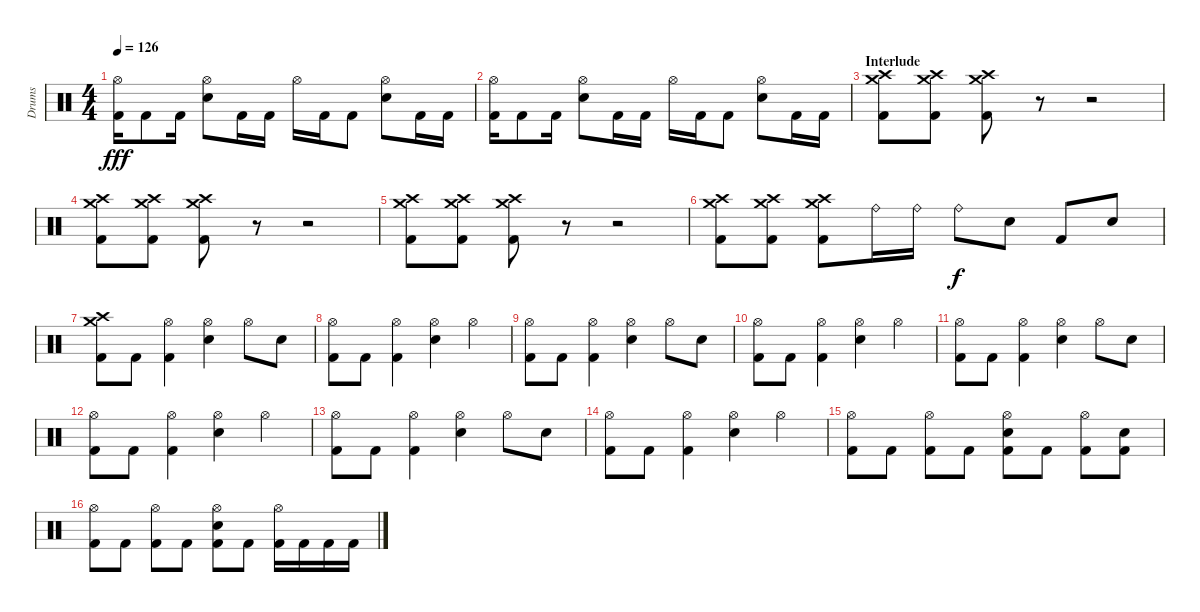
\track ("Drums" "Drums") {instrument percussion}
\staff {score}
\articulation defaults
\ts (4 4)
\tempo 126
\clef neutral
\ks c
("Hi-Hat (open)" "Kick (hit) 2").16{dy fff} "Kick (hit) 2".8 "Kick (hit) 2".16 ("Hi-Hat (open)" "Electric Snare (hit)").8 "Kick (hit) 2".16 "Kick (hit) 2".16 "Hi-Hat (open)".16 "Kick (hit) 2".16 "Kick (hit) 2".8 ("Hi-Hat (open)" "Electric Snare (hit)").8 "Kick (hit) 2".16 "Kick (hit) 2".16 |
("Hi-Hat (open)" "Kick (hit) 2").16 "Kick (hit) 2".8 "Kick (hit) 2".16 ("Hi-Hat (open)" "Electric Snare (hit)").8 "Kick (hit) 2".16 "Kick (hit) 2".16 "Hi-Hat (open)".16 "Kick (hit) 2".16 "Kick (hit) 2".8 ("Hi-Hat (open)" "Electric Snare (hit)").8 "Kick (hit) 2".16 "Kick (hit) 2".16 |
\section ("" "Interlude")
("Crash high (hit)" "Crash medium (hit)" "Kick (hit) 2").8 ("Crash high (hit)" "Crash medium (hit)" "Kick (hit) 2").8 ("Crash high (hit)" "Crash medium (hit)" "Kick (hit) 2").8 r.8 r.2 |
("Crash high (hit)" "Crash medium (hit)" "Kick (hit) 2").8 ("Crash high (hit)" "Crash medium (hit)" "Kick (hit) 2").8 ("Crash high (hit)" "Crash medium (hit)" "Kick (hit) 2").8 r.8 r.2 |
("Crash high (hit)" "Crash medium (hit)" "Kick (hit) 2").8 ("Crash high (hit)" "Crash medium (hit)" "Kick (hit) 2").8 ("Crash high (hit)" "Crash medium (hit)" "Kick (hit) 2").8 r.8 r.2 |
("Crash high (hit)" "Crash medium (hit)" "Kick (hit) 2").8 ("Crash high (hit)" "Crash medium (hit)" "Kick (hit) 2").8 ("Crash high (hit)" "Crash medium (hit)" "Kick (hit) 2").8 "Ride (bell)".16 "Ride (bell)".16 "Ride (bell)".8{dy f} "Electric Snare (hit)".8 "Kick (hit) 2".8 "Electric Snare (hit)".8 |
("Crash high (hit)" "Crash medium (hit)" "Kick (hit) 2").8 "Kick (hit) 2".8 ("Hi-Hat (open)" "Kick (hit) 2").4 ("Hi-Hat (open)" "Electric Snare (hit)").4 "Hi-Hat (open)".8 "Electric Snare (hit)".8 |
("Hi-Hat (open)" "Kick (hit) 2").8 "Kick (hit) 2".8 ("Hi-Hat (open)" "Kick (hit) 2").4 ("Hi-Hat (open)" "Electric Snare (hit)").4 "Hi-Hat (open)".4 |
("Hi-Hat (open)" "Kick (hit) 2").8 "Kick (hit) 2".8 ("Hi-Hat (open)" "Kick (hit) 2").4 ("Hi-Hat (open)" "Electric Snare (hit)").4 "Hi-Hat (open)".8 "Electric Snare (hit)".8 |
("Hi-Hat (open)" "Kick (hit) 2").8 "Kick (hit) 2".8 ("Hi-Hat (open)" "Kick (hit) 2").4 ("Hi-Hat (open)" "Electric Snare (hit)").4 "Hi-Hat (open)".4 |
("Hi-Hat (open)" "Kick (hit) 2").8 "Kick (hit) 2".8 ("Hi-Hat (open)" "Kick (hit) 2").4 ("Hi-Hat (open)" "Electric Snare (hit)").4 "Hi-Hat (open)".8 "Electric Snare (hit)".8 |
("Hi-Hat (open)" "Kick (hit) 2").8 "Kick (hit) 2".8 ("Hi-Hat (open)" "Kick (hit) 2").4 ("Hi-Hat (open)" "Electric Snare (hit)").4 "Hi-Hat (open)".4 |
("Hi-Hat (open)" "Kick (hit) 2").8 "Kick (hit) 2".8 ("Hi-Hat (open)" "Kick (hit) 2").4 ("Hi-Hat (open)" "Electric Snare (hit)").4 "Hi-Hat (open)".8 "Electric Snare (hit)".8 |
("Hi-Hat (open)" "Kick (hit) 2").8 "Kick (hit) 2".8 ("Hi-Hat (open)" "Kick (hit) 2").4 ("Hi-Hat (open)" "Electric Snare (hit)").4 "Hi-Hat (open)".4 |
("Hi-Hat (open)" "Kick (hit) 2").8 "Kick (hit) 2".8 ("Hi-Hat (open)" "Kick (hit) 2").8 "Kick (hit) 2".8 ("Hi-Hat (open)" "Electric Snare (hit)" "Kick (hit) 2").8 "Kick (hit) 2".8 ("Hi-Hat (open)" "Kick (hit) 2").8 ("Electric Snare (hit)" "Kick (hit) 2").8 |
("Hi-Hat (open)" "Kick (hit) 2").8 "Kick (hit) 2".8 ("Hi-Hat (open)" "Kick (hit) 2").8 "Kick (hit) 2".8 ("Hi-Hat (open)" "Electric Snare (hit)" "Kick (hit) 2").8 "Kick (hit) 2".8 ("Hi-Hat (open)" "Kick (hit) 2").16 "Kick (hit) 2".16 "Kick (hit) 2".16 "Kick (hit) 2".16
